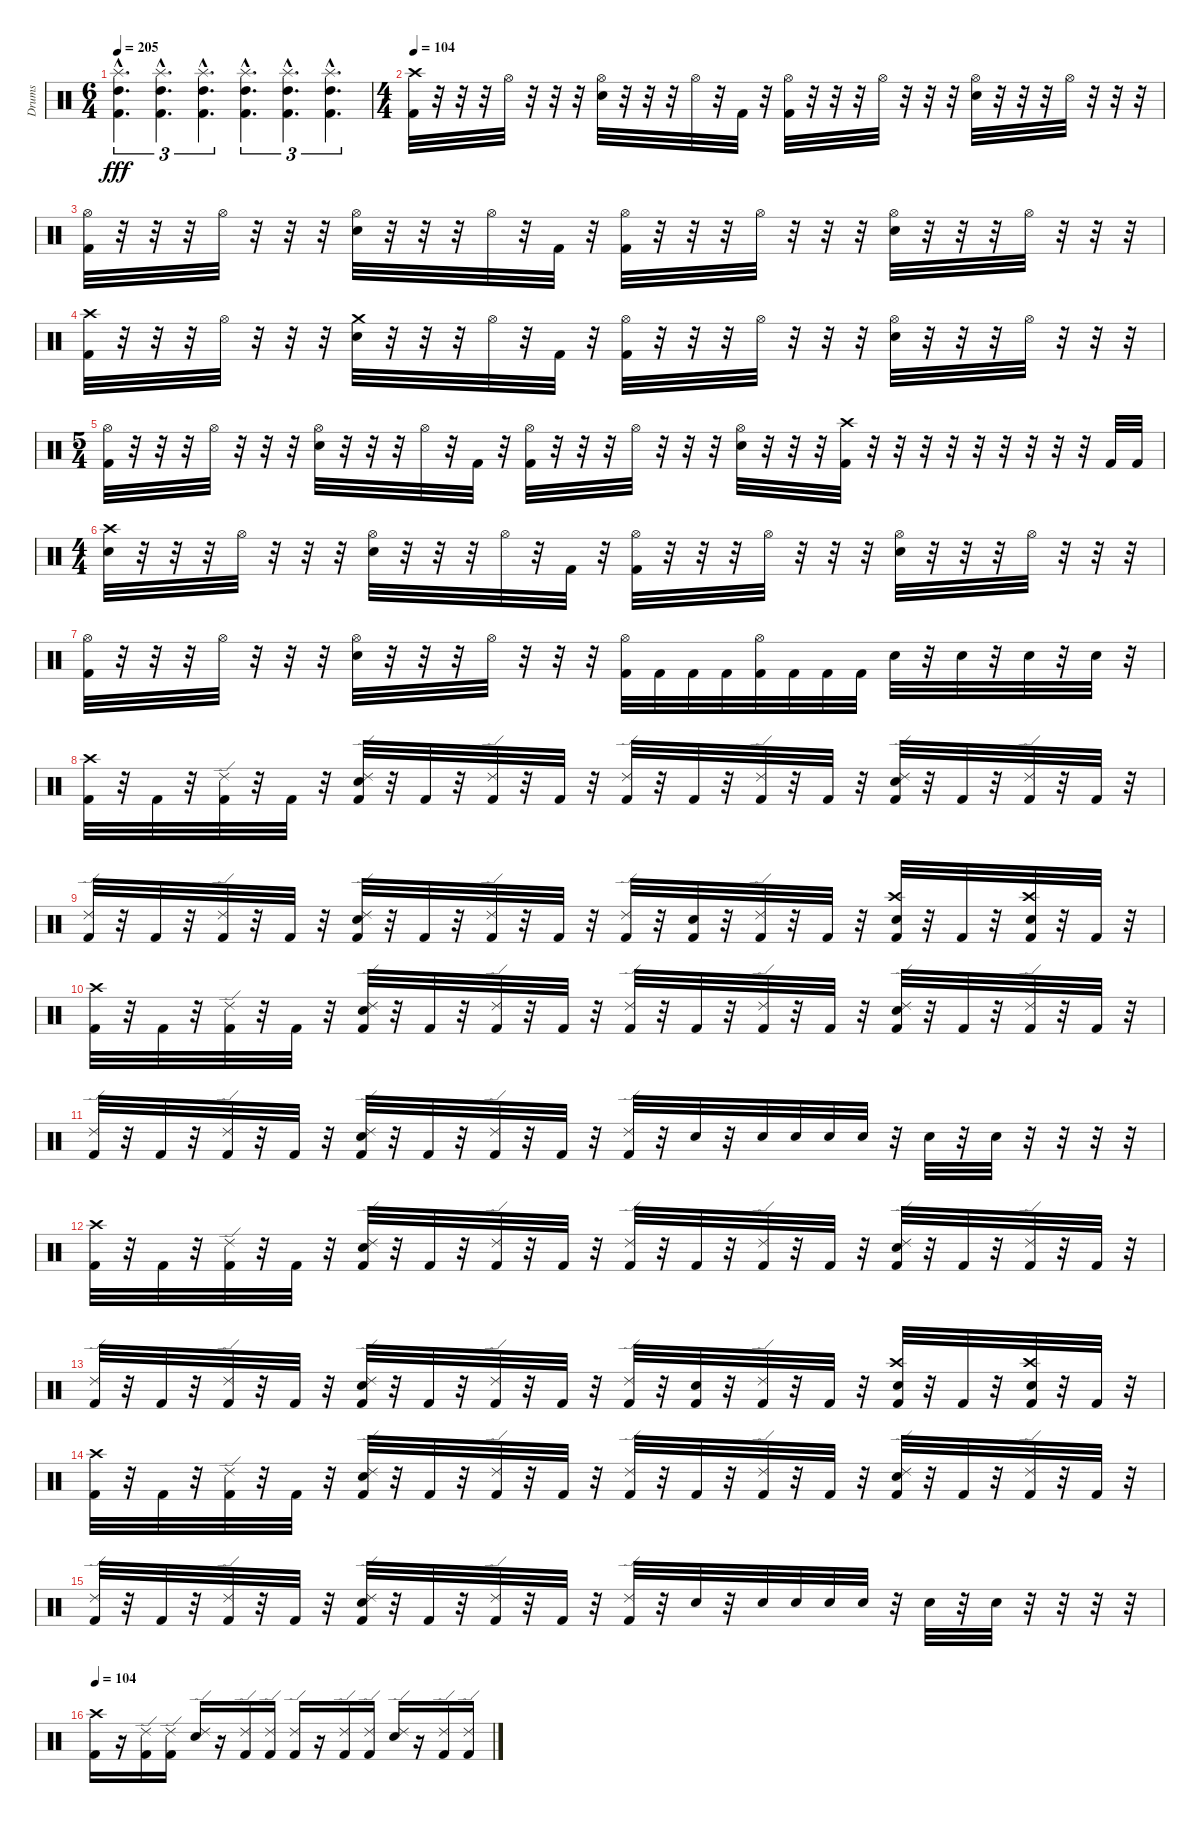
\track ("Drums" "Drums") {instrument percussion}
\staff {score}
\articulation defaults
\ts (6 4)
\tempo 205
\clef neutral
\ks c
("Splash (hit)"{hac} "High Tom (hit)"{hac} "Kick (hit) 2"{hac}).4{d tu (3 2) dy fff} ("Splash (hit)"{hac} "High Tom (hit)"{hac} "Kick (hit) 2"{hac}).4{d tu (3 2)} ("Splash (hit)"{hac} "High Tom (hit)"{hac} "Kick (hit) 2"{hac}).4{d tu (3 2)} ("Splash (hit)"{hac} "High Tom (hit)"{hac} "Kick (hit) 2"{hac}).4{d tu (3 2)} ("Splash (hit)"{hac} "High Tom (hit)"{hac} "Kick (hit) 2"{hac}).4{d tu (3 2)} ("Splash (hit)"{hac} "High Tom (hit)"{hac} "Kick (hit) 2"{hac}).4{d tu (3 2)} |
\ts (4 4)
\tempo 104
("Crash high (hit)" "Kick (hit) 2").32 r.32 r.32 r.32 "Hi-Hat (open)".32 r.32 r.32 r.32 ("Hi-Hat (open)" "Snare (hit) 2").32 r.32 r.32 r.32 "Hi-Hat (open)".32 r.32 "Kick (hit) 2".32 r.32 ("Hi-Hat (open)" "Kick (hit) 2").32 r.32 r.32 r.32 "Hi-Hat (open)".32 r.32 r.32 r.32 ("Hi-Hat (open)" "Snare (hit) 2").32 r.32 r.32 r.32 "Hi-Hat (open)".32 r.32 r.32 r.32 |
("Hi-Hat (open)" "Kick (hit) 2").32 r.32 r.32 r.32 "Hi-Hat (open)".32 r.32 r.32 r.32 ("Hi-Hat (open)" "Snare (hit) 2").32 r.32 r.32 r.32 "Hi-Hat (open)".32 r.32 "Kick (hit) 2".32 r.32 ("Hi-Hat (open)" "Kick (hit) 2").32 r.32 r.32 r.32 "Hi-Hat (open)".32 r.32 r.32 r.32 ("Hi-Hat (open)" "Snare (hit) 2").32 r.32 r.32 r.32 "Hi-Hat (open)".32 r.32 r.32 r.32 |
("Crash high (hit)" "Kick (hit) 2").32 r.32 r.32 r.32 "Hi-Hat (open)".32 r.32 r.32 r.32 ("Crash medium (hit)" "Snare (hit) 2").32 r.32 r.32 r.32 "Hi-Hat (open)".32 r.32 "Kick (hit) 2".32 r.32 ("Hi-Hat (open)" "Kick (hit) 2").32 r.32 r.32 r.32 "Hi-Hat (open)".32 r.32 r.32 r.32 ("Hi-Hat (open)" "Snare (hit) 2").32 r.32 r.32 r.32 "Hi-Hat (open)".32 r.32 r.32 r.32 |
\ts (5 4)
("Hi-Hat (open)" "Kick (hit) 2").32 r.32 r.32 r.32 "Hi-Hat (open)".32 r.32 r.32 r.32 ("Hi-Hat (open)" "Snare (hit) 2").32 r.32 r.32 r.32 "Hi-Hat (open)".32 r.32 "Kick (hit) 2".32 r.32 ("Hi-Hat (open)" "Kick (hit) 2").32 r.32 r.32 r.32 "Hi-Hat (open)".32 r.32 r.32 r.32 ("Hi-Hat (open)" "Snare (hit) 2").32 r.32 r.32 r.32 ("Crash high (hit)" "Kick (hit) 2").32 r.32 r.32 r.32 r.32 r.32 r.32 r.32 r.32 r.32 "Kick (hit) 2".32 "Kick (hit) 2".32 |
\ts (4 4)
("Crash high (hit)" "Snare (hit) 2").32 r.32 r.32 r.32 "Hi-Hat (open)".32 r.32 r.32 r.32 ("Hi-Hat (open)" "Snare (hit) 2").32 r.32 r.32 r.32 "Hi-Hat (open)".32 r.32 "Kick (hit) 2".32 r.32 ("Hi-Hat (open)" "Kick (hit) 2").32 r.32 r.32 r.32 "Hi-Hat (open)".32 r.32 r.32 r.32 ("Hi-Hat (open)" "Snare (hit) 2").32 r.32 r.32 r.32 "Hi-Hat (open)".32 r.32 r.32 r.32 |
("Hi-Hat (open)" "Kick (hit) 2").32 r.32 r.32 r.32 "Hi-Hat (open)".32 r.32 r.32 r.32 ("Hi-Hat (open)" "Snare (hit) 2").32 r.32 r.32 r.32 "Hi-Hat (open)".32 r.32 r.32 r.32 ("Hi-Hat (open)" "Kick (hit) 2").32 "Kick (hit) 2".32 "Kick (hit) 2".32 "Kick (hit) 2".32 ("Hi-Hat (open)" "Kick (hit) 2").32 "Kick (hit) 2".32 "Kick (hit) 2".32 "Kick (hit) 2".32 "Snare (hit) 2".32 r.32 "Snare (hit) 2".32 r.32 "Snare (hit) 2".32 r.32 "Snare (hit) 2".32 r.32 |
("Crash high (hit)" "Kick (hit) 2").32 r.32 "Kick (hit) 2".32 r.32 ("Ride (edge) 2" "Kick (hit) 2").32 r.32 "Kick (hit) 2".32 r.32 ("Ride (edge) 2" "Snare (hit) 2" "Kick (hit) 2").32 r.32 "Kick (hit) 2".32 r.32 ("Ride (edge) 2" "Kick (hit) 2").32 r.32 "Kick (hit) 2".32 r.32 ("Ride (edge) 2" "Kick (hit) 2").32 r.32 "Kick (hit) 2".32 r.32 ("Ride (edge) 2" "Kick (hit) 2").32 r.32 "Kick (hit) 2".32 r.32 ("Ride (edge) 2" "Snare (hit) 2" "Kick (hit) 2").32 r.32 "Kick (hit) 2".32 r.32 ("Ride (edge) 2" "Kick (hit) 2").32 r.32 "Kick (hit) 2".32 r.32 |
("Ride (edge) 2" "Kick (hit) 2").32 r.32 "Kick (hit) 2".32 r.32 ("Ride (edge) 2" "Kick (hit) 2").32 r.32 "Kick (hit) 2".32 r.32 ("Ride (edge) 2" "Snare (hit) 2" "Kick (hit) 2").32 r.32 "Kick (hit) 2".32 r.32 ("Ride (edge) 2" "Kick (hit) 2").32 r.32 "Kick (hit) 2".32 r.32 ("Ride (edge) 2" "Kick (hit) 2").32 r.32 ("Snare (hit) 2" "Kick (hit) 2").32 r.32 ("Ride (edge) 2" "Kick (hit) 2").32 r.32 "Kick (hit) 2".32 r.32 ("Crash high (hit)" "Snare (hit) 2" "Kick (hit) 2").32 r.32 "Kick (hit) 2".32 r.32 ("Crash high (hit)" "Snare (hit) 2" "Kick (hit) 2").32 r.32 "Kick (hit) 2".32 r.32 |
("Crash high (hit)" "Kick (hit) 2").32 r.32 "Kick (hit) 2".32 r.32 ("Ride (edge) 2" "Kick (hit) 2").32 r.32 "Kick (hit) 2".32 r.32 ("Ride (edge) 2" "Snare (hit) 2" "Kick (hit) 2").32 r.32 "Kick (hit) 2".32 r.32 ("Ride (edge) 2" "Kick (hit) 2").32 r.32 "Kick (hit) 2".32 r.32 ("Ride (edge) 2" "Kick (hit) 2").32 r.32 "Kick (hit) 2".32 r.32 ("Ride (edge) 2" "Kick (hit) 2").32 r.32 "Kick (hit) 2".32 r.32 ("Ride (edge) 2" "Snare (hit) 2" "Kick (hit) 2").32 r.32 "Kick (hit) 2".32 r.32 ("Ride (edge) 2" "Kick (hit) 2").32 r.32 "Kick (hit) 2".32 r.32 |
("Ride (edge) 2" "Kick (hit) 2").32 r.32 "Kick (hit) 2".32 r.32 ("Ride (edge) 2" "Kick (hit) 2").32 r.32 "Kick (hit) 2".32 r.32 ("Ride (edge) 2" "Snare (hit) 2" "Kick (hit) 2").32 r.32 "Kick (hit) 2".32 r.32 ("Ride (edge) 2" "Kick (hit) 2").32 r.32 "Kick (hit) 2".32 r.32 ("Ride (edge) 2" "Kick (hit) 2").32 r.32 "Snare (hit) 2".32 r.32 "Snare (hit) 2".32 "Snare (hit) 2".32 "Snare (hit) 2".32 "Snare (hit) 2".32 r.32 "Snare (hit) 2".32 r.32 "Snare (hit) 2".32 r.32 r.32 r.32 r.32 |
("Crash high (hit)" "Kick (hit) 2").32 r.32 "Kick (hit) 2".32 r.32 ("Ride (edge) 2" "Kick (hit) 2").32 r.32 "Kick (hit) 2".32 r.32 ("Ride (edge) 2" "Snare (hit) 2" "Kick (hit) 2").32 r.32 "Kick (hit) 2".32 r.32 ("Ride (edge) 2" "Kick (hit) 2").32 r.32 "Kick (hit) 2".32 r.32 ("Ride (edge) 2" "Kick (hit) 2").32 r.32 "Kick (hit) 2".32 r.32 ("Ride (edge) 2" "Kick (hit) 2").32 r.32 "Kick (hit) 2".32 r.32 ("Ride (edge) 2" "Snare (hit) 2" "Kick (hit) 2").32 r.32 "Kick (hit) 2".32 r.32 ("Ride (edge) 2" "Kick (hit) 2").32 r.32 "Kick (hit) 2".32 r.32 |
("Ride (edge) 2" "Kick (hit) 2").32 r.32 "Kick (hit) 2".32 r.32 ("Ride (edge) 2" "Kick (hit) 2").32 r.32 "Kick (hit) 2".32 r.32 ("Ride (edge) 2" "Snare (hit) 2" "Kick (hit) 2").32 r.32 "Kick (hit) 2".32 r.32 ("Ride (edge) 2" "Kick (hit) 2").32 r.32 "Kick (hit) 2".32 r.32 ("Ride (edge) 2" "Kick (hit) 2").32 r.32 ("Snare (hit) 2" "Kick (hit) 2").32 r.32 ("Ride (edge) 2" "Kick (hit) 2").32 r.32 "Kick (hit) 2".32 r.32 ("Crash high (hit)" "Snare (hit) 2" "Kick (hit) 2").32 r.32 "Kick (hit) 2".32 r.32 ("Crash high (hit)" "Snare (hit) 2" "Kick (hit) 2").32 r.32 "Kick (hit) 2".32 r.32 |
("Crash high (hit)" "Kick (hit) 2").32 r.32 "Kick (hit) 2".32 r.32 ("Ride (edge) 2" "Kick (hit) 2").32 r.32 "Kick (hit) 2".32 r.32 ("Ride (edge) 2" "Snare (hit) 2" "Kick (hit) 2").32 r.32 "Kick (hit) 2".32 r.32 ("Ride (edge) 2" "Kick (hit) 2").32 r.32 "Kick (hit) 2".32 r.32 ("Ride (edge) 2" "Kick (hit) 2").32 r.32 "Kick (hit) 2".32 r.32 ("Ride (edge) 2" "Kick (hit) 2").32 r.32 "Kick (hit) 2".32 r.32 ("Ride (edge) 2" "Snare (hit) 2" "Kick (hit) 2").32 r.32 "Kick (hit) 2".32 r.32 ("Ride (edge) 2" "Kick (hit) 2").32 r.32 "Kick (hit) 2".32 r.32 |
("Ride (edge) 2" "Kick (hit) 2").32 r.32 "Kick (hit) 2".32 r.32 ("Ride (edge) 2" "Kick (hit) 2").32 r.32 "Kick (hit) 2".32 r.32 ("Ride (edge) 2" "Snare (hit) 2" "Kick (hit) 2").32 r.32 "Kick (hit) 2".32 r.32 ("Ride (edge) 2" "Kick (hit) 2").32 r.32 "Kick (hit) 2".32 r.32 ("Ride (edge) 2" "Kick (hit) 2").32 r.32 "Snare (hit) 2".32 r.32 "Snare (hit) 2".32 "Snare (hit) 2".32 "Snare (hit) 2".32 "Snare (hit) 2".32 r.32 "Snare (hit) 2".32 r.32 "Snare (hit) 2".32 r.32 r.32 r.32 r.32 |
\tempo 104
("Crash high (hit)" "Kick (hit) 2").16 r.16 ("Ride (edge) 2" "Kick (hit) 2").16 ("Ride (edge) 2" "Kick (hit) 2").16 ("Ride (edge) 2" "Snare (hit) 2").16 r.16 ("Ride (edge) 2" "Kick (hit) 2").16 ("Ride (edge) 2" "Kick (hit) 2").16 ("Ride (edge) 2" "Kick (hit) 2").16 r.16 ("Ride (edge) 2" "Kick (hit) 2").16 ("Ride (edge) 2" "Kick (hit) 2").16 ("Ride (edge) 2" "Snare (hit) 2").16 r.16 ("Ride (edge) 2" "Kick (hit) 2").16 ("Ride (edge) 2" "Kick (hit) 2").16
